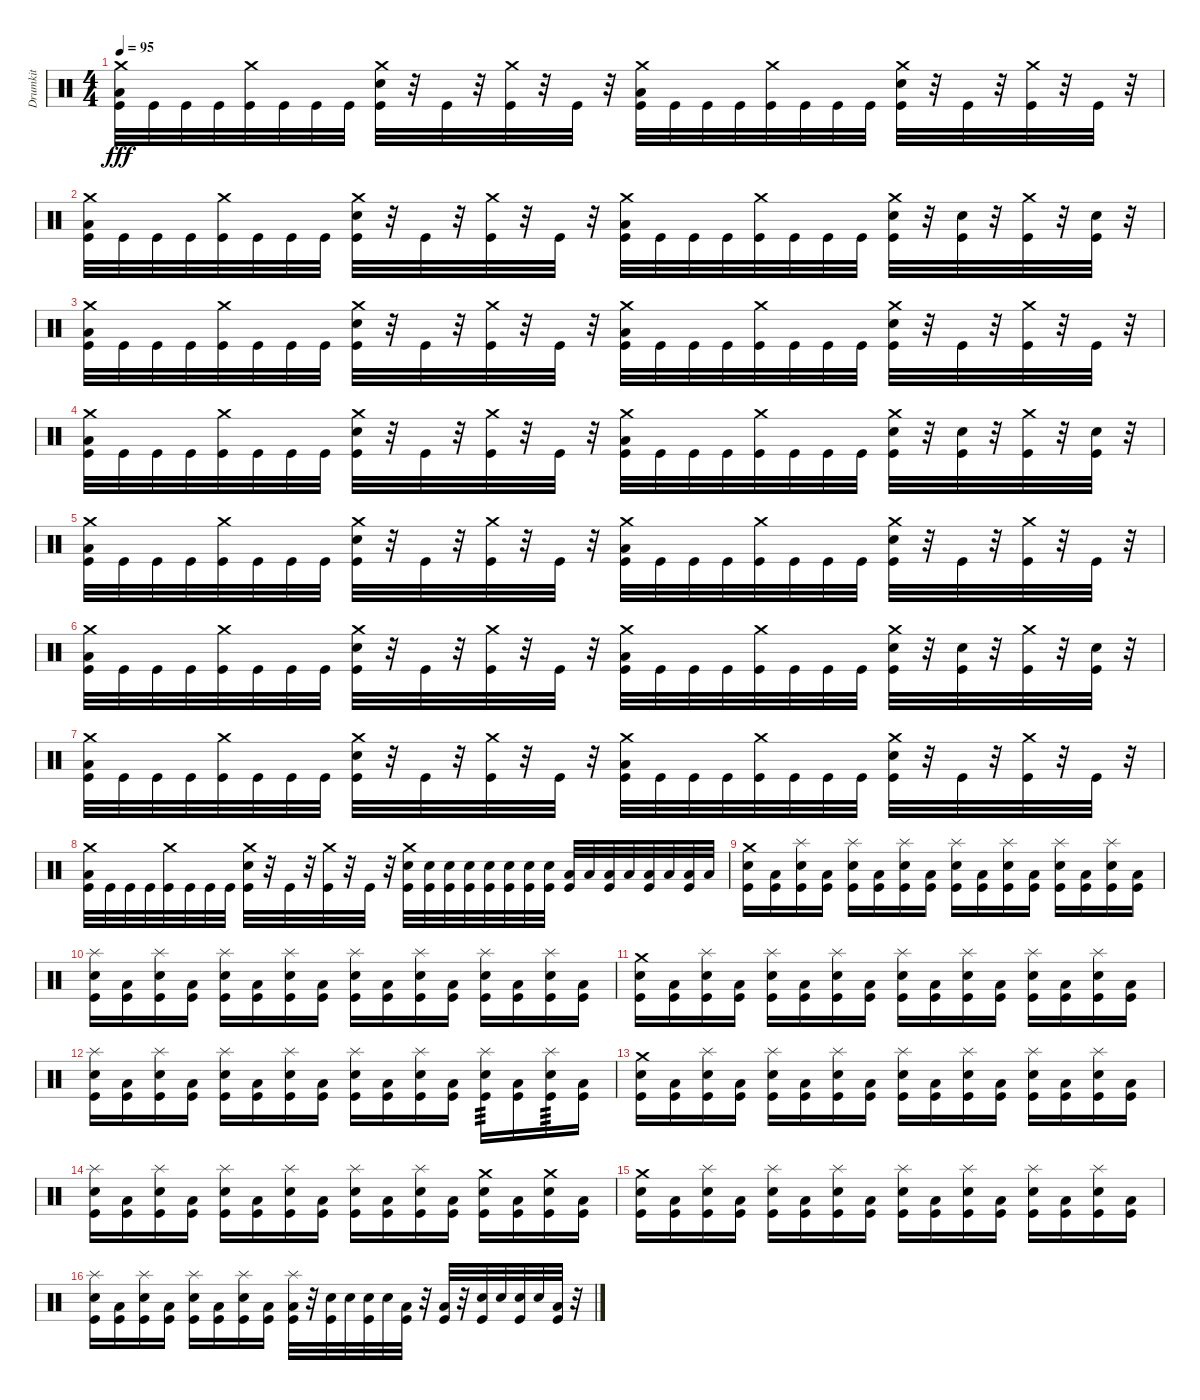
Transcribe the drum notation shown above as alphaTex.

\track ("Drumkit" "Drumkit") {instrument percussion}
\staff {score}
\articulation defaults
\ts (4 4)
\tempo 95
\clef neutral
\ks c
("Crash medium (hit)" "Low Floor Tom (hit)" "Kick (hit)").32{dy fff} "Kick (hit)".32 "Kick (hit)".32 "Kick (hit)".32 ("Crash medium (hit)" "Kick (hit)").32 "Kick (hit)".32 "Kick (hit)".32 "Kick (hit)".32 ("Crash medium (hit)" "Snare (hit) 2" "Kick (hit)").32 r.32 "Kick (hit)".32 r.32 ("Crash medium (hit)" "Kick (hit)").32 r.32 "Kick (hit)".32 r.32 ("Crash medium (hit)" "Low Floor Tom (hit)" "Kick (hit)").32 "Kick (hit)".32 "Kick (hit)".32 "Kick (hit)".32 ("Crash medium (hit)" "Kick (hit)").32 "Kick (hit)".32 "Kick (hit)".32 "Kick (hit)".32 ("Crash medium (hit)" "Snare (hit) 2" "Kick (hit)").32 r.32 "Kick (hit)".32 r.32 ("Crash medium (hit)" "Kick (hit)").32 r.32 "Kick (hit)".32 r.32 |
("Crash medium (hit)" "Low Floor Tom (hit)" "Kick (hit)").32 "Kick (hit)".32 "Kick (hit)".32 "Kick (hit)".32 ("Crash medium (hit)" "Kick (hit)").32 "Kick (hit)".32 "Kick (hit)".32 "Kick (hit)".32 ("Crash medium (hit)" "Snare (hit) 2" "Kick (hit)").32 r.32 "Kick (hit)".32 r.32 ("Crash medium (hit)" "Kick (hit)").32 r.32 "Kick (hit)".32 r.32 ("Crash medium (hit)" "Low Floor Tom (hit)" "Kick (hit)").32 "Kick (hit)".32 "Kick (hit)".32 "Kick (hit)".32 ("Crash medium (hit)" "Kick (hit)").32 "Kick (hit)".32 "Kick (hit)".32 "Kick (hit)".32 ("Crash medium (hit)" "Snare (hit) 2" "Kick (hit)").32 r.32 ("Snare (hit) 2" "Kick (hit)").32 r.32 ("Crash medium (hit)" "Kick (hit)").32 r.32 ("Snare (hit) 2" "Kick (hit)").32 r.32 |
("Crash medium (hit)" "Low Floor Tom (hit)" "Kick (hit)").32 "Kick (hit)".32 "Kick (hit)".32 "Kick (hit)".32 ("Crash medium (hit)" "Kick (hit)").32 "Kick (hit)".32 "Kick (hit)".32 "Kick (hit)".32 ("Crash medium (hit)" "Snare (hit) 2" "Kick (hit)").32 r.32 "Kick (hit)".32 r.32 ("Crash medium (hit)" "Kick (hit)").32 r.32 "Kick (hit)".32 r.32 ("Crash medium (hit)" "Low Floor Tom (hit)" "Kick (hit)").32 "Kick (hit)".32 "Kick (hit)".32 "Kick (hit)".32 ("Crash medium (hit)" "Kick (hit)").32 "Kick (hit)".32 "Kick (hit)".32 "Kick (hit)".32 ("Crash medium (hit)" "Snare (hit) 2" "Kick (hit)").32 r.32 "Kick (hit)".32 r.32 ("Crash medium (hit)" "Kick (hit)").32 r.32 "Kick (hit)".32 r.32 |
("Crash medium (hit)" "Low Floor Tom (hit)" "Kick (hit)").32 "Kick (hit)".32 "Kick (hit)".32 "Kick (hit)".32 ("Crash medium (hit)" "Kick (hit)").32 "Kick (hit)".32 "Kick (hit)".32 "Kick (hit)".32 ("Crash medium (hit)" "Snare (hit) 2" "Kick (hit)").32 r.32 "Kick (hit)".32 r.32 ("Crash medium (hit)" "Kick (hit)").32 r.32 "Kick (hit)".32 r.32 ("Crash medium (hit)" "Low Floor Tom (hit)" "Kick (hit)").32 "Kick (hit)".32 "Kick (hit)".32 "Kick (hit)".32 ("Crash medium (hit)" "Kick (hit)").32 "Kick (hit)".32 "Kick (hit)".32 "Kick (hit)".32 ("Crash medium (hit)" "Snare (hit) 2" "Kick (hit)").32 r.32 ("Snare (hit) 2" "Kick (hit)").32 r.32 ("Crash medium (hit)" "Kick (hit)").32 r.32 ("Snare (hit) 2" "Kick (hit)").32 r.32 |
("Crash medium (hit)" "Low Floor Tom (hit)" "Kick (hit)").32 "Kick (hit)".32 "Kick (hit)".32 "Kick (hit)".32 ("Crash medium (hit)" "Kick (hit)").32 "Kick (hit)".32 "Kick (hit)".32 "Kick (hit)".32 ("Crash medium (hit)" "Snare (hit) 2" "Kick (hit)").32 r.32 "Kick (hit)".32 r.32 ("Crash medium (hit)" "Kick (hit)").32 r.32 "Kick (hit)".32 r.32 ("Crash medium (hit)" "Low Floor Tom (hit)" "Kick (hit)").32 "Kick (hit)".32 "Kick (hit)".32 "Kick (hit)".32 ("Crash medium (hit)" "Kick (hit)").32 "Kick (hit)".32 "Kick (hit)".32 "Kick (hit)".32 ("Crash medium (hit)" "Snare (hit) 2" "Kick (hit)").32 r.32 "Kick (hit)".32 r.32 ("Crash medium (hit)" "Kick (hit)").32 r.32 "Kick (hit)".32 r.32 |
("Crash medium (hit)" "Low Floor Tom (hit)" "Kick (hit)").32 "Kick (hit)".32 "Kick (hit)".32 "Kick (hit)".32 ("Crash medium (hit)" "Kick (hit)").32 "Kick (hit)".32 "Kick (hit)".32 "Kick (hit)".32 ("Crash medium (hit)" "Snare (hit) 2" "Kick (hit)").32 r.32 "Kick (hit)".32 r.32 ("Crash medium (hit)" "Kick (hit)").32 r.32 "Kick (hit)".32 r.32 ("Crash medium (hit)" "Low Floor Tom (hit)" "Kick (hit)").32 "Kick (hit)".32 "Kick (hit)".32 "Kick (hit)".32 ("Crash medium (hit)" "Kick (hit)").32 "Kick (hit)".32 "Kick (hit)".32 "Kick (hit)".32 ("Crash medium (hit)" "Snare (hit) 2" "Kick (hit)").32 r.32 ("Snare (hit) 2" "Kick (hit)").32 r.32 ("Crash medium (hit)" "Kick (hit)").32 r.32 ("Snare (hit) 2" "Kick (hit)").32 r.32 |
("Crash medium (hit)" "Low Floor Tom (hit)" "Kick (hit)").32 "Kick (hit)".32 "Kick (hit)".32 "Kick (hit)".32 ("Crash medium (hit)" "Kick (hit)").32 "Kick (hit)".32 "Kick (hit)".32 "Kick (hit)".32 ("Crash medium (hit)" "Snare (hit) 2" "Kick (hit)").32 r.32 "Kick (hit)".32 r.32 ("Crash medium (hit)" "Kick (hit)").32 r.32 "Kick (hit)".32 r.32 ("Crash medium (hit)" "Low Floor Tom (hit)" "Kick (hit)").32 "Kick (hit)".32 "Kick (hit)".32 "Kick (hit)".32 ("Crash medium (hit)" "Kick (hit)").32 "Kick (hit)".32 "Kick (hit)".32 "Kick (hit)".32 ("Crash medium (hit)" "Snare (hit) 2" "Kick (hit)").32 r.32 "Kick (hit)".32 r.32 ("Crash medium (hit)" "Kick (hit)").32 r.32 "Kick (hit)".32 r.32 |
("Crash medium (hit)" "Low Floor Tom (hit)" "Kick (hit)").32 "Kick (hit)".32 "Kick (hit)".32 "Kick (hit)".32 ("Crash medium (hit)" "Kick (hit)").32 "Kick (hit)".32 "Kick (hit)".32 "Kick (hit)".32 ("Crash medium (hit)" "Snare (hit) 2" "Kick (hit)").32 r.32 "Kick (hit)".32 r.32 ("Crash medium (hit)" "Kick (hit)").32 r.32 "Kick (hit)".32 r.32 ("Crash medium (hit)" "Snare (hit) 2" "Kick (hit)").32 ("Snare (hit) 2" "Kick (hit)").32 ("Snare (hit) 2" "Kick (hit)").32 ("Snare (hit) 2" "Kick (hit)").32 ("Snare (hit) 2" "Kick (hit)").32 ("Snare (hit) 2" "Kick (hit)").32 ("Snare (hit) 2" "Kick (hit)").32 ("Snare (hit) 2" "Kick (hit)").32 ("Low Floor Tom (hit)" "Kick (hit)").32 "Low Floor Tom (hit)".32 ("Low Floor Tom (hit)" "Kick (hit)").32 "Low Floor Tom (hit)".32 ("Low Floor Tom (hit)" "Kick (hit)").32 "Low Floor Tom (hit)".32 ("Low Floor Tom (hit)" "Kick (hit)").32 "Low Floor Tom (hit)".32 |
("Crash medium (hit)" "Snare (hit) 2" "Kick (hit)").16 ("Low Floor Tom (hit)" "Kick (hit)").16 ("Splash (hit)" "Snare (hit) 2" "Kick (hit)").16 ("Low Floor Tom (hit)" "Kick (hit)").16 ("Splash (hit)" "Snare (hit) 2" "Kick (hit)").16 ("Low Floor Tom (hit)" "Kick (hit)").16 ("Splash (hit)" "Snare (hit) 2" "Kick (hit)").16 ("Low Floor Tom (hit)" "Kick (hit)").16 ("Splash (hit)" "Snare (hit) 2" "Kick (hit)").16 ("Low Floor Tom (hit)" "Kick (hit)").16 ("Splash (hit)" "Snare (hit) 2" "Kick (hit)").16 ("Low Floor Tom (hit)" "Kick (hit)").16 ("Splash (hit)" "Snare (hit) 2" "Kick (hit)").16 ("Low Floor Tom (hit)" "Kick (hit)").16 ("Splash (hit)" "Snare (hit) 2" "Kick (hit)").16 ("Low Floor Tom (hit)" "Kick (hit)").16 |
("Splash (hit)" "Snare (hit) 2" "Kick (hit)").16 ("Low Floor Tom (hit)" "Kick (hit)").16 ("Splash (hit)" "Snare (hit) 2" "Kick (hit)").16 ("Low Floor Tom (hit)" "Kick (hit)").16 ("Splash (hit)" "Snare (hit) 2" "Kick (hit)").16 ("Low Floor Tom (hit)" "Kick (hit)").16 ("Splash (hit)" "Snare (hit) 2" "Kick (hit)").16 ("Low Floor Tom (hit)" "Kick (hit)").16 ("Splash (hit)" "Snare (hit) 2" "Kick (hit)").16 ("Low Floor Tom (hit)" "Kick (hit)").16 ("Splash (hit)" "Snare (hit) 2" "Kick (hit)").16 ("Low Floor Tom (hit)" "Kick (hit)").16 ("Splash (hit)" "Snare (hit) 2" "Kick (hit)").16 ("Low Floor Tom (hit)" "Kick (hit)").16 ("Splash (hit)" "Snare (hit) 2" "Kick (hit)").16 ("Low Floor Tom (hit)" "Kick (hit)").16 |
("Crash medium (hit)" "Snare (hit) 2" "Kick (hit)").16 ("Low Floor Tom (hit)" "Kick (hit)").16 ("Splash (hit)" "Snare (hit) 2" "Kick (hit)").16 ("Low Floor Tom (hit)" "Kick (hit)").16 ("Splash (hit)" "Snare (hit) 2" "Kick (hit)").16 ("Low Floor Tom (hit)" "Kick (hit)").16 ("Splash (hit)" "Snare (hit) 2" "Kick (hit)").16 ("Low Floor Tom (hit)" "Kick (hit)").16 ("Splash (hit)" "Snare (hit) 2" "Kick (hit)").16 ("Low Floor Tom (hit)" "Kick (hit)").16 ("Splash (hit)" "Snare (hit) 2" "Kick (hit)").16 ("Low Floor Tom (hit)" "Kick (hit)").16 ("Splash (hit)" "Snare (hit) 2" "Kick (hit)").16 ("Low Floor Tom (hit)" "Kick (hit)").16 ("Splash (hit)" "Snare (hit) 2" "Kick (hit)").16 ("Low Floor Tom (hit)" "Kick (hit)").16 |
("Splash (hit)" "Snare (hit) 2" "Kick (hit)").16 ("Low Floor Tom (hit)" "Kick (hit)").16 ("Splash (hit)" "Snare (hit) 2" "Kick (hit)").16 ("Low Floor Tom (hit)" "Kick (hit)").16 ("Splash (hit)" "Snare (hit) 2" "Kick (hit)").16 ("Low Floor Tom (hit)" "Kick (hit)").16 ("Splash (hit)" "Snare (hit) 2" "Kick (hit)").16 ("Low Floor Tom (hit)" "Kick (hit)").16 ("Splash (hit)" "Snare (hit) 2" "Kick (hit)").16 ("Low Floor Tom (hit)" "Kick (hit)").16 ("Splash (hit)" "Snare (hit) 2" "Kick (hit)").16 ("Low Floor Tom (hit)" "Kick (hit)").16 ("Splash (hit)" "Snare (hit) 2" "Kick (hit)").16{tp 3} ("Low Floor Tom (hit)" "Kick (hit)").16 ("Splash (hit)" "Snare (hit) 2" "Kick (hit)").16{tp 3} ("Low Floor Tom (hit)" "Kick (hit)").16 |
("Crash medium (hit)" "Snare (hit) 2" "Kick (hit)").16 ("Low Floor Tom (hit)" "Kick (hit)").16 ("Splash (hit)" "Snare (hit) 2" "Kick (hit)").16 ("Low Floor Tom (hit)" "Kick (hit)").16 ("Splash (hit)" "Snare (hit) 2" "Kick (hit)").16 ("Low Floor Tom (hit)" "Kick (hit)").16 ("Splash (hit)" "Snare (hit) 2" "Kick (hit)").16 ("Low Floor Tom (hit)" "Kick (hit)").16 ("Splash (hit)" "Snare (hit) 2" "Kick (hit)").16 ("Low Floor Tom (hit)" "Kick (hit)").16 ("Splash (hit)" "Snare (hit) 2" "Kick (hit)").16 ("Low Floor Tom (hit)" "Kick (hit)").16 ("Splash (hit)" "Snare (hit) 2" "Kick (hit)").16 ("Low Floor Tom (hit)" "Kick (hit)").16 ("Splash (hit)" "Snare (hit) 2" "Kick (hit)").16 ("Low Floor Tom (hit)" "Kick (hit)").16 |
("Splash (hit)" "Snare (hit) 2" "Kick (hit)").16 ("Low Floor Tom (hit)" "Kick (hit)").16 ("Splash (hit)" "Snare (hit) 2" "Kick (hit)").16 ("Low Floor Tom (hit)" "Kick (hit)").16 ("Splash (hit)" "Snare (hit) 2" "Kick (hit)").16 ("Low Floor Tom (hit)" "Kick (hit)").16 ("Splash (hit)" "Snare (hit) 2" "Kick (hit)").16 ("Low Floor Tom (hit)" "Kick (hit)").16 ("Splash (hit)" "Snare (hit) 2" "Kick (hit)").16 ("Low Floor Tom (hit)" "Kick (hit)").16 ("Splash (hit)" "Snare (hit) 2" "Kick (hit)").16 ("Low Floor Tom (hit)" "Kick (hit)").16 ("Crash medium (hit)" "Snare (hit) 2" "Kick (hit)").16 ("Low Floor Tom (hit)" "Kick (hit)").16 ("Crash medium (hit)" "Snare (hit) 2" "Kick (hit)").16 ("Low Floor Tom (hit)" "Kick (hit)").16 |
("Crash medium (hit)" "Snare (hit) 2" "Kick (hit)").16 ("Low Floor Tom (hit)" "Kick (hit)").16 ("Splash (hit)" "Snare (hit) 2" "Kick (hit)").16 ("Low Floor Tom (hit)" "Kick (hit)").16 ("Splash (hit)" "Snare (hit) 2" "Kick (hit)").16 ("Low Floor Tom (hit)" "Kick (hit)").16 ("Splash (hit)" "Snare (hit) 2" "Kick (hit)").16 ("Low Floor Tom (hit)" "Kick (hit)").16 ("Splash (hit)" "Snare (hit) 2" "Kick (hit)").16 ("Low Floor Tom (hit)" "Kick (hit)").16 ("Splash (hit)" "Snare (hit) 2" "Kick (hit)").16 ("Low Floor Tom (hit)" "Kick (hit)").16 ("Splash (hit)" "Snare (hit) 2" "Kick (hit)").16 ("Low Floor Tom (hit)" "Kick (hit)").16 ("Splash (hit)" "Snare (hit) 2" "Kick (hit)").16 ("Low Floor Tom (hit)" "Kick (hit)").16 |
("Splash (hit)" "Snare (hit) 2" "Kick (hit)").16 ("Low Floor Tom (hit)" "Kick (hit)").16 ("Splash (hit)" "Snare (hit) 2" "Kick (hit)").16 ("Low Floor Tom (hit)" "Kick (hit)").16 ("Splash (hit)" "Snare (hit) 2" "Kick (hit)").16 ("Low Floor Tom (hit)" "Kick (hit)").16 ("Splash (hit)" "Snare (hit) 2" "Kick (hit)").16 ("Low Floor Tom (hit)" "Kick (hit)").16 ("Splash (hit)" "Low Floor Tom (hit)" "Kick (hit)").32 r.32 ("Snare (hit) 2" "Kick (hit)").32 "Snare (hit) 2".32 ("Snare (hit) 2" "Kick (hit)").32 "Snare (hit) 2".32 ("Low Floor Tom (hit)" "Kick (hit)").32 r.32 ("Low Floor Tom (hit)" "Kick (hit)").32 r.32 ("Snare (hit) 2" "Kick (hit)").32 "Snare (hit) 2".32 ("Snare (hit) 2" "Kick (hit)").32 "Snare (hit) 2".32 ("Low Floor Tom (hit)" "Kick (hit)").32 r.32
